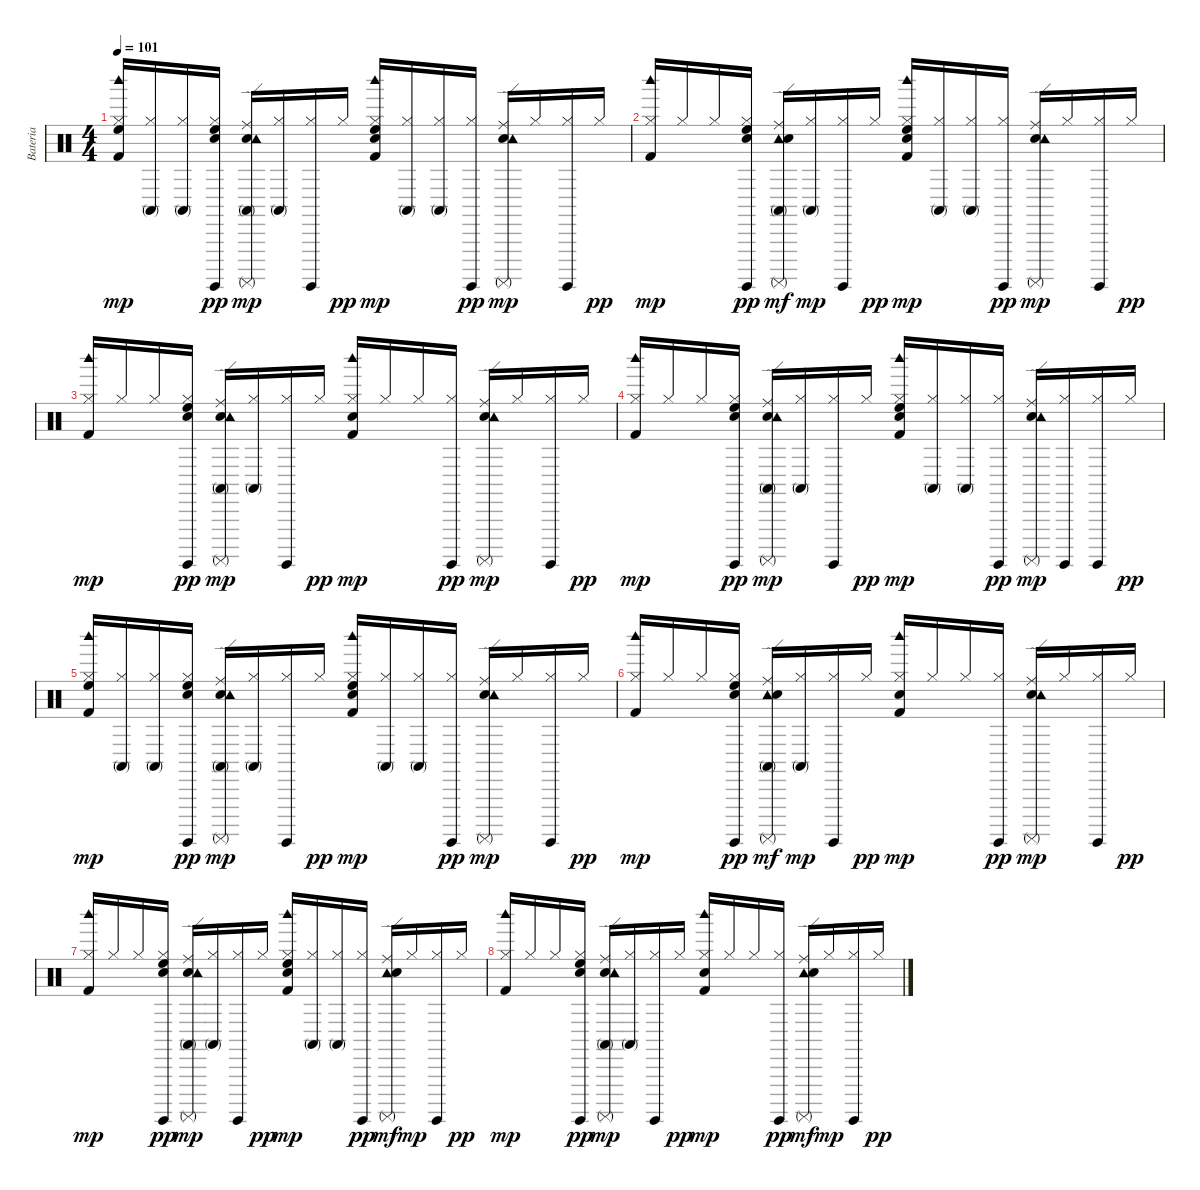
\track ("Bateria" "Bateria") {instrument percussion}
\staff {score}
\articulation defaults
\ts (4 4)
\tempo 101
\clef neutral
\ks c
("High Floor Tom (hit)" "Kick (hit) 2" "Hi-Hat (closed)" "Woodblock high (hit)").16{dy mp} ("Conga high (mute)" "Hi-Hat (closed)").16 ("Conga high (mute)" "Hi-Hat (closed)").16 ("High Floor Tom (hit)" "Snare (hit)" "Surdo (hit)" "Hi-Hat (closed)").16{dy pp} ("Conga high (mute)" "Ride (edge)" "Electric Snare (hit)" "Surdo (mute)" "Tambourine (hit)").16{dy mp} ("Conga high (mute)" "Hi-Hat (closed)").16 ("Surdo (hit)" "Hi-Hat (closed)").16 "Hi-Hat (closed)".16{dy pp} ("High Floor Tom (hit)" "Snare (hit)" "Kick (hit) 2" "Hi-Hat (closed)" "Woodblock high (hit)").16{dy mp} ("Conga high (mute)" "Hi-Hat (closed)").16 ("Conga high (mute)" "Hi-Hat (closed)").16 ("Surdo (hit)" "Hi-Hat (closed)").16{dy pp} ("Ride (edge)" "Electric Snare (hit)" "Surdo (mute)" "Tambourine (hit)").16{dy mp} "Hi-Hat (closed)".16 ("Surdo (hit)" "Hi-Hat (closed)").16 "Hi-Hat (closed)".16{dy pp} |
("Kick (hit) 2" "Hi-Hat (closed)" "Woodblock high (hit)").16{dy mp} "Hi-Hat (closed)".16 "Hi-Hat (closed)".16 ("High Floor Tom (hit)" "Snare (hit)" "Surdo (hit)" "Hi-Hat (closed)").16{dy pp} ("Conga high (mute)" "Ride (edge)" "Tambourine (hit)" "Electric Snare (hit)" "Surdo (mute)").16{dy mf} ("Conga high (mute)" "Hi-Hat (closed)").16{dy mp} ("Surdo (hit)" "Hi-Hat (closed)").16 "Hi-Hat (closed)".16{dy pp} ("High Floor Tom (hit)" "Snare (hit)" "Kick (hit) 2" "Hi-Hat (closed)" "Woodblock high (hit)").16{dy mp} ("Conga high (mute)" "Hi-Hat (closed)").16 ("Conga high (mute)" "Hi-Hat (closed)").16 ("Surdo (hit)" "Hi-Hat (closed)").16{dy pp} ("Ride (edge)" "Electric Snare (hit)" "Surdo (mute)" "Tambourine (hit)").16{dy mp} "Hi-Hat (closed)".16 ("Surdo (hit)" "Hi-Hat (closed)").16 "Hi-Hat (closed)".16{dy pp} |
("Kick (hit) 2" "Hi-Hat (closed)" "Woodblock high (hit)").16{dy mp} "Hi-Hat (closed)".16 "Hi-Hat (closed)".16 ("High Floor Tom (hit)" "Snare (hit)" "Surdo (hit)" "Hi-Hat (closed)").16{dy pp} ("Conga high (mute)" "Ride (edge)" "Electric Snare (hit)" "Surdo (mute)" "Tambourine (hit)").16{dy mp} ("Conga high (mute)" "Hi-Hat (closed)").16 ("Surdo (hit)" "Hi-Hat (closed)").16 "Hi-Hat (closed)".16{dy pp} ("Snare (hit)" "Kick (hit) 2" "Hi-Hat (closed)" "Woodblock high (hit)").16{dy mp} "Hi-Hat (closed)".16 "Hi-Hat (closed)".16 ("Surdo (hit)" "Hi-Hat (closed)").16{dy pp} ("Ride (edge)" "Electric Snare (hit)" "Surdo (mute)" "Tambourine (hit)").16{dy mp} "Hi-Hat (closed)".16 ("Surdo (hit)" "Hi-Hat (closed)").16 "Hi-Hat (closed)".16{dy pp} |
("Woodblock high (hit)" "Kick (hit) 2" "Hi-Hat (closed)").16{dy mp} "Hi-Hat (closed)".16 "Hi-Hat (closed)".16 ("High Floor Tom (hit)" "Snare (hit)" "Surdo (hit)" "Hi-Hat (closed)").16{dy pp} ("Conga high (mute)" "Ride (edge)" "Electric Snare (hit)" "Surdo (mute)" "Tambourine (hit)").16{dy mp} ("Conga high (mute)" "Hi-Hat (closed)").16 ("Surdo (hit)" "Hi-Hat (closed)").16 "Hi-Hat (closed)".16{dy pp} ("High Floor Tom (hit)" "Snare (hit)" "Woodblock high (hit)" "Kick (hit) 2" "Hi-Hat (closed)").16{dy mp} ("Conga high (mute)" "Hi-Hat (closed)").16 ("Conga high (mute)" "Hi-Hat (closed)").16 ("Surdo (hit)" "Hi-Hat (closed)").16{dy pp} ("Ride (edge)" "Electric Snare (hit)" "Surdo (mute)" "Tambourine (hit)").16{dy mp} ("Surdo (hit)" "Hi-Hat (closed)").16 ("Surdo (hit)" "Hi-Hat (closed)").16 "Hi-Hat (closed)".16{dy pp} |
("High Floor Tom (hit)" "Kick (hit) 2" "Hi-Hat (closed)" "Woodblock high (hit)").16{dy mp} ("Conga high (mute)" "Hi-Hat (closed)").16 ("Conga high (mute)" "Hi-Hat (closed)").16 ("High Floor Tom (hit)" "Snare (hit)" "Surdo (hit)" "Hi-Hat (closed)").16{dy pp} ("Conga high (mute)" "Ride (edge)" "Electric Snare (hit)" "Surdo (mute)" "Tambourine (hit)").16{dy mp} ("Conga high (mute)" "Hi-Hat (closed)").16 ("Surdo (hit)" "Hi-Hat (closed)").16 "Hi-Hat (closed)".16{dy pp} ("High Floor Tom (hit)" "Snare (hit)" "Kick (hit) 2" "Hi-Hat (closed)" "Woodblock high (hit)").16{dy mp} ("Conga high (mute)" "Hi-Hat (closed)").16 ("Conga high (mute)" "Hi-Hat (closed)").16 ("Surdo (hit)" "Hi-Hat (closed)").16{dy pp} ("Ride (edge)" "Electric Snare (hit)" "Surdo (mute)" "Tambourine (hit)").16{dy mp} "Hi-Hat (closed)".16 ("Surdo (hit)" "Hi-Hat (closed)").16 "Hi-Hat (closed)".16{dy pp} |
("Kick (hit) 2" "Hi-Hat (closed)" "Woodblock high (hit)").16{dy mp} "Hi-Hat (closed)".16 "Hi-Hat (closed)".16 ("High Floor Tom (hit)" "Snare (hit)" "Surdo (hit)" "Hi-Hat (closed)").16{dy pp} ("Conga high (mute)" "Ride (edge)" "Tambourine (hit)" "Electric Snare (hit)" "Surdo (mute)").16{dy mf} ("Conga high (mute)" "Hi-Hat (closed)").16{dy mp} ("Surdo (hit)" "Hi-Hat (closed)").16 "Hi-Hat (closed)".16{dy pp} ("Snare (hit)" "Hi-Hat (closed)" "Woodblock high (hit)" "Kick (hit) 2").16{dy mp} "Hi-Hat (closed)".16 "Hi-Hat (closed)".16 ("Surdo (hit)" "Hi-Hat (closed)").16{dy pp} ("Ride (edge)" "Electric Snare (hit)" "Surdo (mute)" "Tambourine (hit)").16{dy mp} "Hi-Hat (closed)".16 ("Surdo (hit)" "Hi-Hat (closed)").16 "Hi-Hat (closed)".16{dy pp} |
("Kick (hit) 2" "Hi-Hat (closed)" "Woodblock high (hit)").16{dy mp} "Hi-Hat (closed)".16 "Hi-Hat (closed)".16 ("High Floor Tom (hit)" "Snare (hit)" "Surdo (hit)" "Hi-Hat (closed)").16{dy pp} ("Conga high (mute)" "Ride (edge)" "Electric Snare (hit)" "Surdo (mute)" "Tambourine (hit)").16{dy mp} ("Conga high (mute)" "Hi-Hat (closed)").16 ("Surdo (hit)" "Hi-Hat (closed)").16 "Hi-Hat (closed)".16{dy pp} ("High Floor Tom (hit)" "Snare (hit)" "Hi-Hat (closed)" "Woodblock high (hit)" "Kick (hit) 2").16{dy mp} ("Conga high (mute)" "Hi-Hat (closed)").16 ("Conga high (mute)" "Hi-Hat (closed)").16 ("Surdo (hit)" "Hi-Hat (closed)").16{dy pp} ("Ride (edge)" "Surdo (mute)" "Tambourine (hit)" "Electric Snare (hit)").16{dy mf} "Hi-Hat (closed)".16{dy mp} ("Surdo (hit)" "Hi-Hat (closed)").16 "Hi-Hat (closed)".16{dy pp} |
("Kick (hit) 2" "Hi-Hat (closed)" "Woodblock high (hit)").16{dy mp} "Hi-Hat (closed)".16 "Hi-Hat (closed)".16 ("High Floor Tom (hit)" "Snare (hit)" "Surdo (hit)" "Hi-Hat (closed)").16{dy pp} ("Conga high (mute)" "Ride (edge)" "Electric Snare (hit)" "Surdo (mute)" "Tambourine (hit)").16{dy mp} ("Conga high (mute)" "Hi-Hat (closed)").16 ("Surdo (hit)" "Hi-Hat (closed)").16 "Hi-Hat (closed)".16{dy pp} ("Snare (hit)" "Kick (hit) 2" "Hi-Hat (closed)" "Woodblock high (hit)").16{dy mp} "Hi-Hat (closed)".16 "Hi-Hat (closed)".16 ("Surdo (hit)" "Hi-Hat (closed)").16{dy pp} ("Ride (edge)" "Tambourine (hit)" "Electric Snare (hit)" "Surdo (mute)").16{dy mf} "Hi-Hat (closed)".16{dy mp} ("Surdo (hit)" "Hi-Hat (closed)").16 "Hi-Hat (closed)".16{dy pp}
